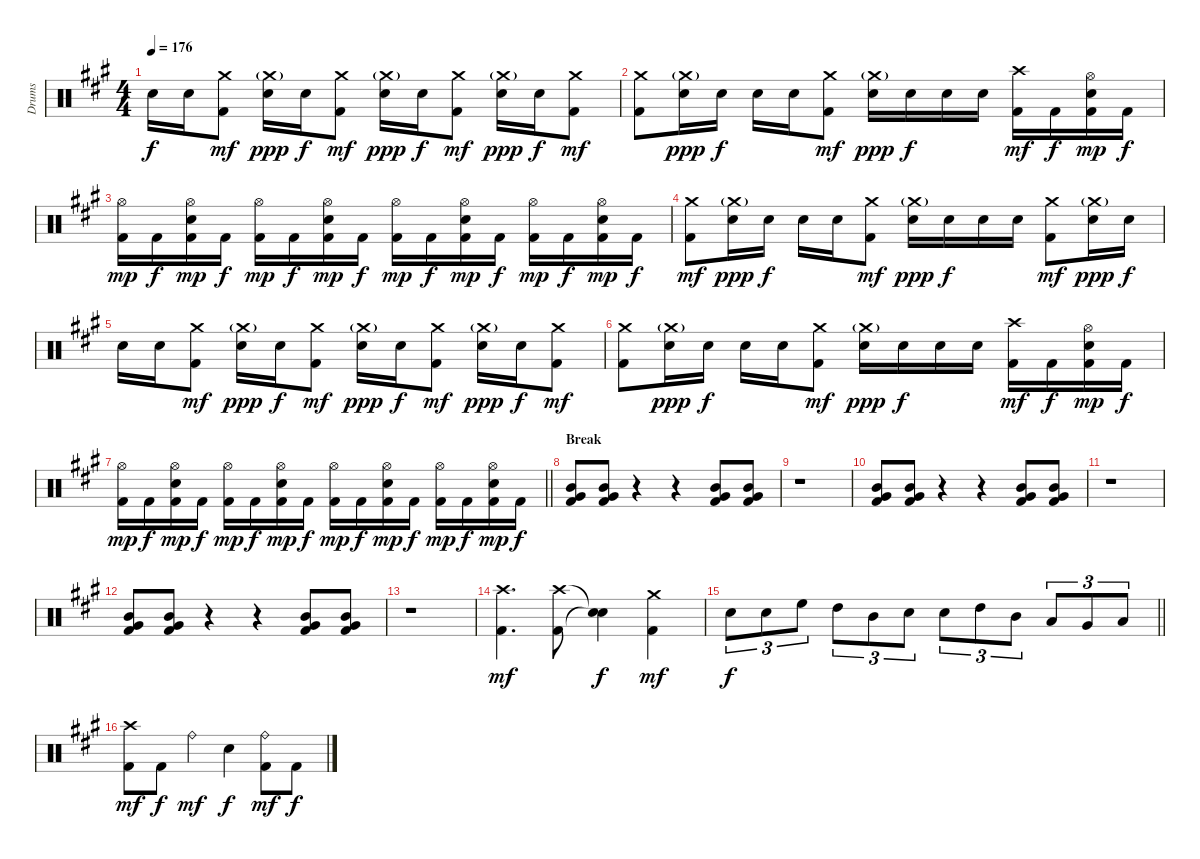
\track ("Drums" "Drums") {instrument percussion}
\staff {score}
\articulation defaults
\ts (4 4)
\tempo 176
\clef neutral
\ks f#minor "Electric Snare (hit)".16{dy f} "Electric Snare (hit)".16
("Crash medium (hit)" "Kick (hit) 2").8{dy mf} ("Crash medium (hit)"{g} "Electric Snare (hit)").16{dy ppp} "Electric Snare (hit)".16{dy f} ("Crash medium (hit)" "Kick (hit) 2").8{dy mf} ("Crash medium (hit)"{g} "Electric Snare (hit)").16{dy ppp} "Electric Snare (hit)".16{dy f} ("Crash medium (hit)" "Kick (hit) 2").8{dy mf} ("Crash medium (hit)"{g} "Electric Snare (hit)").16{dy ppp} "Electric Snare (hit)".16{dy f} ("Crash medium (hit)" "Kick (hit) 2").8{dy mf} |
("Crash medium (hit)" "Kick (hit) 2").8 ("Crash medium (hit)"{g} "Electric Snare (hit)").16{dy ppp} "Electric Snare (hit)".16{dy f} "Electric Snare (hit)".16 "Electric Snare (hit)".16 ("Crash medium (hit)" "Kick (hit) 2").8{dy mf} ("Crash medium (hit)"{g} "Electric Snare (hit)").16{dy ppp} "Electric Snare (hit)".16{dy f} "Electric Snare (hit)".16 "Electric Snare (hit)".16 ("Crash high (hit)" "Kick (hit) 2").16{dy mf} "Kick (hit) 2".16{dy f} ("Hi-Hat (open)" "Electric Snare (hit)" "Kick (hit) 2").16{dy mp} "Kick (hit) 2".16{dy f} |
("Hi-Hat (open)" "Kick (hit) 2").16{dy mp} "Kick (hit) 2".16{dy f} ("Hi-Hat (open)" "Electric Snare (hit)" "Kick (hit) 2").16{dy mp} "Kick (hit) 2".16{dy f} ("Hi-Hat (open)" "Kick (hit) 2").16{dy mp} "Kick (hit) 2".16{dy f} ("Hi-Hat (open)" "Electric Snare (hit)" "Kick (hit) 2").16{dy mp} "Kick (hit) 2".16{dy f} ("Hi-Hat (open)" "Kick (hit) 2").16{dy mp} "Kick (hit) 2".16{dy f} ("Hi-Hat (open)" "Electric Snare (hit)" "Kick (hit) 2").16{dy mp} "Kick (hit) 2".16{dy f} ("Hi-Hat (open)" "Kick (hit) 2").16{dy mp} "Kick (hit) 2".16{dy f} ("Hi-Hat (open)" "Electric Snare (hit)" "Kick (hit) 2").16{dy mp} "Kick (hit) 2".16{dy f} |
("Crash medium (hit)" "Kick (hit) 2").8{dy mf} ("Crash medium (hit)"{g} "Electric Snare (hit)").16{dy ppp} "Electric Snare (hit)".16{dy f} "Electric Snare (hit)".16 "Electric Snare (hit)".16 ("Crash medium (hit)" "Kick (hit) 2").8{dy mf} ("Crash medium (hit)"{g} "Electric Snare (hit)").16{dy ppp} "Electric Snare (hit)".16{dy f} "Electric Snare (hit)".16 "Electric Snare (hit)".16 ("Crash medium (hit)" "Kick (hit) 2").8{dy mf} ("Crash medium (hit)"{g} "Electric Snare (hit)").16{dy ppp} "Electric Snare (hit)".16{dy f} |
"Electric Snare (hit)".16 "Electric Snare (hit)".16 ("Crash medium (hit)" "Kick (hit) 2").8{dy mf} ("Crash medium (hit)"{g} "Electric Snare (hit)").16{dy ppp} "Electric Snare (hit)".16{dy f} ("Crash medium (hit)" "Kick (hit) 2").8{dy mf} ("Crash medium (hit)"{g} "Electric Snare (hit)").16{dy ppp} "Electric Snare (hit)".16{dy f} ("Crash medium (hit)" "Kick (hit) 2").8{dy mf} ("Crash medium (hit)"{g} "Electric Snare (hit)").16{dy ppp} "Electric Snare (hit)".16{dy f} ("Crash medium (hit)" "Kick (hit) 2").8{dy mf} |
("Crash medium (hit)" "Kick (hit) 2").8 ("Crash medium (hit)"{g} "Electric Snare (hit)").16{dy ppp} "Electric Snare (hit)".16{dy f} "Electric Snare (hit)".16 "Electric Snare (hit)".16 ("Crash medium (hit)" "Kick (hit) 2").8{dy mf} ("Crash medium (hit)"{g} "Electric Snare (hit)").16{dy ppp} "Electric Snare (hit)".16{dy f} "Electric Snare (hit)".16 "Electric Snare (hit)".16 ("Crash high (hit)" "Kick (hit) 2").16{dy mf} "Kick (hit) 2".16{dy f} ("Hi-Hat (open)" "Electric Snare (hit)" "Kick (hit) 2").16{dy mp} "Kick (hit) 2".16{dy f} |
\barLineRight lightlight
("Hi-Hat (open)" "Kick (hit) 2").16{dy mp} "Kick (hit) 2".16{dy f} ("Hi-Hat (open)" "Electric Snare (hit)" "Kick (hit) 2").16{dy mp} "Kick (hit) 2".16{dy f} ("Hi-Hat (open)" "Kick (hit) 2").16{dy mp} "Kick (hit) 2".16{dy f} ("Hi-Hat (open)" "Electric Snare (hit)" "Kick (hit) 2").16{dy mp} "Kick (hit) 2".16{dy f} ("Hi-Hat (open)" "Kick (hit) 2").16{dy mp} "Kick (hit) 2".16{dy f} ("Hi-Hat (open)" "Electric Snare (hit)" "Kick (hit) 2").16{dy mp} "Kick (hit) 2".16{dy f} ("Hi-Hat (open)" "Kick (hit) 2").16{dy mp} "Kick (hit) 2".16{dy f} ("Hi-Hat (open)" "Electric Snare (hit)" "Kick (hit) 2").16{dy mp} "Kick (hit) 2".16{dy f} |
\section ("" "Break")
("Very Low Tom (hit)" "Mid Tom (hit)" "Kick (hit) 2").8 ("Very Low Tom (hit)" "Mid Tom (hit)" "Kick (hit) 2").8 r.4 r.4 ("Very Low Tom (hit)" "Mid Tom (hit)" "Kick (hit) 2").8 ("Very Low Tom (hit)" "Mid Tom (hit)" "Kick (hit) 2").8 |
r.1 |
("Very Low Tom (hit)" "Mid Tom (hit)" "Kick (hit) 2").8 ("Very Low Tom (hit)" "Mid Tom (hit)" "Kick (hit) 2").8 r.4 r.4 ("Very Low Tom (hit)" "Mid Tom (hit)" "Kick (hit) 2").8 ("Very Low Tom (hit)" "Mid Tom (hit)" "Kick (hit) 2").8 |
r.1 |
("Very Low Tom (hit)" "Mid Tom (hit)" "Kick (hit) 2").8 ("Very Low Tom (hit)" "Mid Tom (hit)" "Kick (hit) 2").8 r.4 r.4 ("Very Low Tom (hit)" "Mid Tom (hit)" "Kick (hit) 2").8 ("Very Low Tom (hit)" "Mid Tom (hit)" "Kick (hit) 2").8 |
r.1 |
("Crash high (hit)" "Kick (hit) 2").4{d dy mf} ("Crash high (hit)" "Kick (hit) 2").8 ("Snare (hit)"{t} "Snare (hit)"{t}).4{dy f} ("Crash medium (hit)" "Kick (hit) 2").4{dy mf} |
\barLineRight lightlight "Electric Snare (hit)".8{tu (3 2) dy f} "Electric Snare (hit)".8{tu (3 2)} "High Floor Tom (hit)".8{tu (3 2)} "High Tom (hit)".8{tu (3 2)} "Mid Tom (hit)".8{tu (3 2)} "Electric Snare (hit)".8{tu (3 2)} "Electric Snare (hit)".8{tu (3 2)} "High Tom (hit)".8{tu (3 2)} "Mid Tom (hit)".8{tu (3 2)} "Low Tom (hit)".8{tu (3 2)} "Very Low Tom (hit)".8{tu (3 2)} "Low Floor Tom (hit)".8{tu (3 2)}
|
\section ("" "")
("Crash high (hit)" "Kick (hit) 2").8{dy mf} "Kick (hit) 2".8{dy f} "Ride (bell)".4{dy mf} "Electric Snare (hit)".4{dy f} ("Ride (bell)" "Kick (hit) 2").8{dy mf} "Kick (hit) 2".8{dy f}
